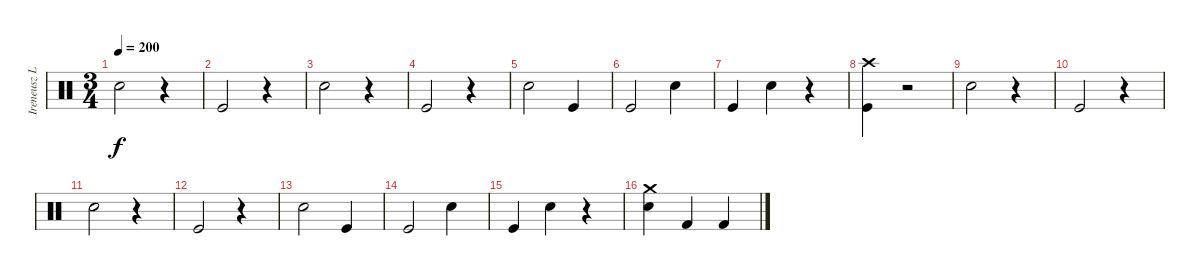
\track ("Ireneusz Loth -Drums" "Ireneusz L") {instrument percussion}
\staff {score}
\articulation defaults
\ts (3 4)
\tempo 200
\clef neutral
\ks c "Snare (hit) 2".2{dy f}
r.4 |
"Kick (hit)".2 r.4 |
"Snare (hit) 2".2 r.4 |
"Kick (hit)".2 r.4 |
"Snare (hit) 2".2 "Kick (hit)".4 |
"Kick (hit)".2 "Snare (hit) 2".4 |
"Kick (hit)".4 "Snare (hit) 2".4 r.4 |
("Kick (hit)" "Crash high (hit)").4 r.2 |
"Snare (hit) 2".2 r.4 |
"Kick (hit)".2 r.4 |
"Snare (hit) 2".2 r.4 |
"Kick (hit)".2 r.4 |
"Snare (hit) 2".2 "Kick (hit)".4 |
"Kick (hit)".2 "Snare (hit) 2".4 |
"Kick (hit)".4 "Snare (hit) 2".4 r.4 |
("Snare (hit) 2" "Crash medium (hit)").4 "Kick (hit) 2".4 "Kick (hit) 2".4
